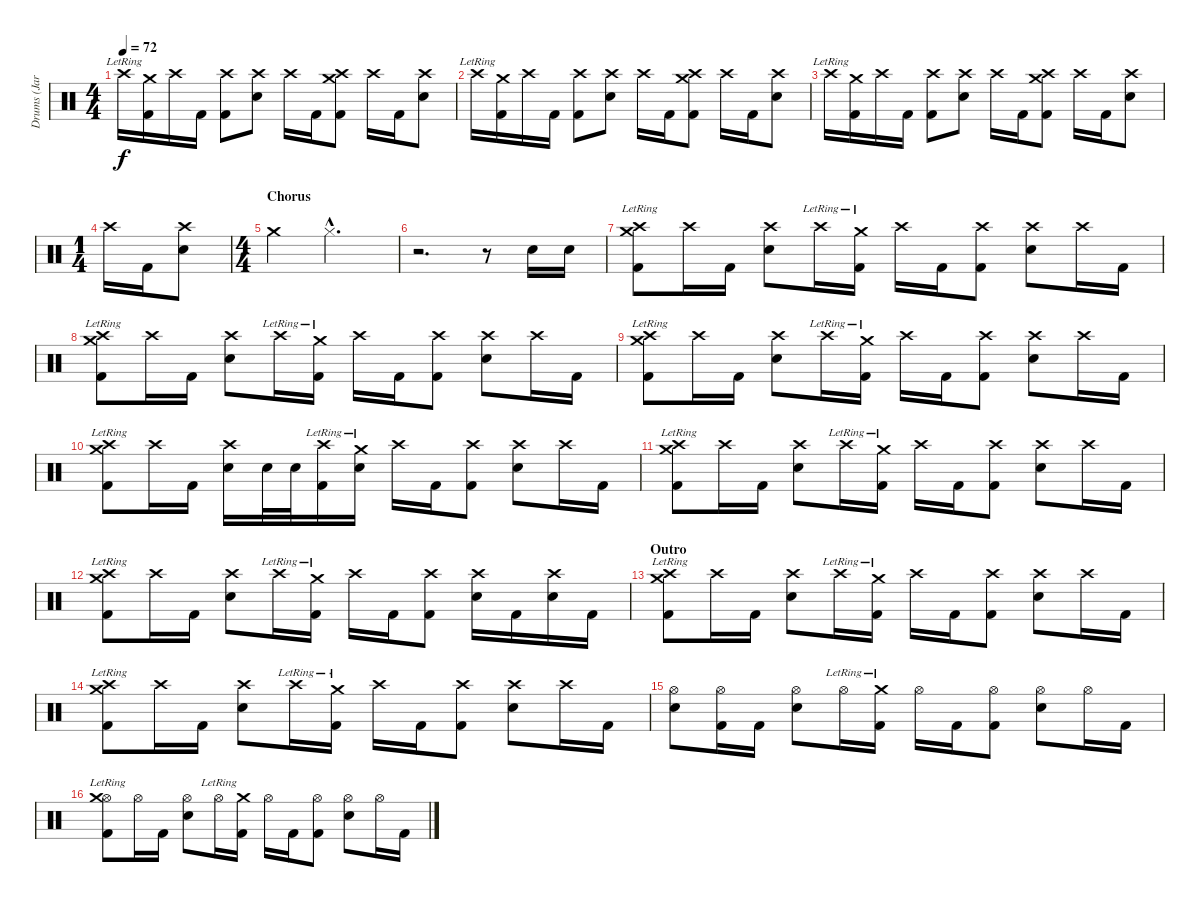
\track ("Drums (Jarod Montague)" "Drums (Jar") {instrument percussion}
\staff {score}
\articulation defaults
\ts (4 4)
\tempo 72
\clef neutral
\ks c "Crash high (hit)"{lr}.16{dy f}
("Crash medium (hit)"{lr} "Kick (hit) 2").16 "Crash high (hit)".16 "Kick (hit) 2".16 ("Crash high (hit)" "Kick (hit) 2").8 ("Crash high (hit)" "Snare (hit) 2").8 "Crash high (hit)".16 "Kick (hit) 2".16 ("Crash high (hit)" "Crash medium (hit)" "Kick (hit) 2").8 "Crash high (hit)".16 "Kick (hit) 2".16 ("Crash high (hit)" "Snare (hit) 2").8 |
"Crash high (hit)"{lr}.16 ("Crash medium (hit)"{lr} "Kick (hit) 2").16 "Crash high (hit)".16 "Kick (hit) 2".16 ("Crash high (hit)" "Kick (hit) 2").8 ("Crash high (hit)" "Snare (hit) 2").8 "Crash high (hit)".16 "Kick (hit) 2".16 ("Crash high (hit)" "Crash medium (hit)" "Kick (hit) 2").8 "Crash high (hit)".16 "Kick (hit) 2".16 ("Crash high (hit)" "Snare (hit) 2").8 |
"Crash high (hit)"{lr}.16 ("Crash medium (hit)"{lr} "Kick (hit) 2").16 "Crash high (hit)".16 "Kick (hit) 2".16 ("Crash high (hit)" "Kick (hit) 2").8 ("Crash high (hit)" "Snare (hit) 2").8 "Crash high (hit)".16 "Kick (hit) 2".16 ("Crash high (hit)" "Crash medium (hit)" "Kick (hit) 2").8 "Crash high (hit)".16 "Kick (hit) 2".16 ("Crash high (hit)" "Snare (hit) 2").8 |
\ts (1 4)
"Crash high (hit)".16 "Kick (hit) 2".16 ("Crash high (hit)" "Snare (hit) 2").8 |
\ts (4 4)
\section ("" "Chorus")
"Crash medium (hit)".4 "Hi-Hat (closed)"{hac}.2{d} |
r.2{d} r.8 "Snare (hit) 2".16 "Snare (hit) 2".16 |
("Crash high (hit)" "Crash medium (hit)"{lr} "Kick (hit) 2").8 "Crash high (hit)".16 "Kick (hit) 2".16 ("Crash high (hit)" "Snare (hit) 2").8 "Crash high (hit)"{lr}.16 ("Crash medium (hit)"{lr} "Kick (hit) 2").16 "Crash high (hit)".16 "Kick (hit) 2".16 ("Crash high (hit)" "Kick (hit) 2").8 ("Crash high (hit)" "Snare (hit) 2").8 "Crash high (hit)".16 "Kick (hit) 2".16 |
("Crash high (hit)" "Crash medium (hit)"{lr} "Kick (hit) 2").8 "Crash high (hit)".16 "Kick (hit) 2".16 ("Crash high (hit)" "Snare (hit) 2").8 "Crash high (hit)"{lr}.16 ("Crash medium (hit)"{lr} "Kick (hit) 2").16 "Crash high (hit)".16 "Kick (hit) 2".16 ("Crash high (hit)" "Kick (hit) 2").8 ("Crash high (hit)" "Snare (hit) 2").8 "Crash high (hit)".16 "Kick (hit) 2".16 |
("Crash high (hit)" "Crash medium (hit)"{lr} "Kick (hit) 2").8 "Crash high (hit)".16 "Kick (hit) 2".16 ("Crash high (hit)" "Snare (hit) 2").8 "Crash high (hit)"{lr}.16 ("Crash medium (hit)"{lr} "Kick (hit) 2").16 "Crash high (hit)".16 "Kick (hit) 2".16 ("Crash high (hit)" "Kick (hit) 2").8 ("Crash high (hit)" "Snare (hit) 2").8 "Crash high (hit)".16 "Kick (hit) 2".16 |
("Crash high (hit)" "Crash medium (hit)"{lr} "Kick (hit) 2").8 "Crash high (hit)".16 "Kick (hit) 2".16 ("Crash high (hit)" "Snare (hit) 2").16 "Snare (hit) 2".32 "Snare (hit) 2".32 ("Crash high (hit)"{lr} "Kick (hit) 2").16 ("Crash medium (hit)"{lr} "Snare (hit) 2").16 "Crash high (hit)".16 "Kick (hit) 2".16 ("Crash high (hit)" "Kick (hit) 2").8 ("Crash high (hit)" "Snare (hit) 2").8 "Crash high (hit)".16 "Kick (hit) 2".16 |
("Crash high (hit)" "Crash medium (hit)"{lr} "Kick (hit) 2").8 "Crash high (hit)".16 "Kick (hit) 2".16 ("Crash high (hit)" "Snare (hit) 2").8 "Crash high (hit)"{lr}.16 ("Crash medium (hit)"{lr} "Kick (hit) 2").16 "Crash high (hit)".16 "Kick (hit) 2".16 ("Crash high (hit)" "Kick (hit) 2").8 ("Crash high (hit)" "Snare (hit) 2").8 "Crash high (hit)".16 "Kick (hit) 2".16 |
("Crash high (hit)" "Crash medium (hit)"{lr} "Kick (hit) 2").8 "Crash high (hit)".16 "Kick (hit) 2".16 ("Crash high (hit)" "Snare (hit) 2").8 "Crash high (hit)"{lr}.16 ("Crash medium (hit)"{lr} "Kick (hit) 2").16 "Crash high (hit)".16 "Kick (hit) 2".16 ("Crash high (hit)" "Kick (hit) 2").8 ("Crash high (hit)" "Snare (hit) 2").16 "Kick (hit) 2".16 ("Crash high (hit)" "Snare (hit) 2").16 "Kick (hit) 2".16 |
\section ("" "Outro")
("Crash high (hit)" "Crash medium (hit)"{lr} "Kick (hit) 2").8 "Crash high (hit)".16 "Kick (hit) 2".16 ("Crash high (hit)" "Snare (hit) 2").8 "Crash high (hit)"{lr}.16 ("Crash medium (hit)"{lr} "Kick (hit) 2").16 "Crash high (hit)".16 "Kick (hit) 2".16 ("Crash high (hit)" "Kick (hit) 2").8 ("Crash high (hit)" "Snare (hit) 2").8 "Crash high (hit)".16 "Kick (hit) 2".16 |
("Crash high (hit)" "Crash medium (hit)"{lr} "Kick (hit) 2").8 "Crash high (hit)".16 "Kick (hit) 2".16 ("Crash high (hit)" "Snare (hit) 2").8 "Crash high (hit)"{lr}.16 ("Crash medium (hit)"{lr} "Kick (hit) 2").16 "Crash high (hit)".16 "Kick (hit) 2".16 ("Crash high (hit)" "Kick (hit) 2").8 ("Crash high (hit)" "Snare (hit) 2").8 "Crash high (hit)".16 "Kick (hit) 2".16 |
("Hi-Hat (open)" "Snare (hit) 2").8 ("Hi-Hat (open)" "Kick (hit) 2").16 "Kick (hit) 2".16 ("Hi-Hat (open)" "Snare (hit) 2").8 "Hi-Hat (open)"{lr}.16 ("Crash medium (hit)"{lr} "Kick (hit) 2").16 "Hi-Hat (open)".16 "Kick (hit) 2".16 ("Hi-Hat (open)" "Kick (hit) 2").8 ("Hi-Hat (open)" "Snare (hit) 2").8 "Hi-Hat (open)".16 "Kick (hit) 2".16 |
("Hi-Hat (open)" "Crash medium (hit)"{lr} "Kick (hit) 2").8 "Hi-Hat (open)".16 "Kick (hit) 2".16 ("Hi-Hat (open)" "Snare (hit) 2").8 "Hi-Hat (open)"{lr}.16 ("Crash medium (hit)"{lr} "Kick (hit) 2").16 "Hi-Hat (open)".16 "Kick (hit) 2".16 ("Hi-Hat (open)" "Kick (hit) 2").8 ("Hi-Hat (open)" "Snare (hit) 2").8 "Hi-Hat (open)".16 "Kick (hit) 2".16
